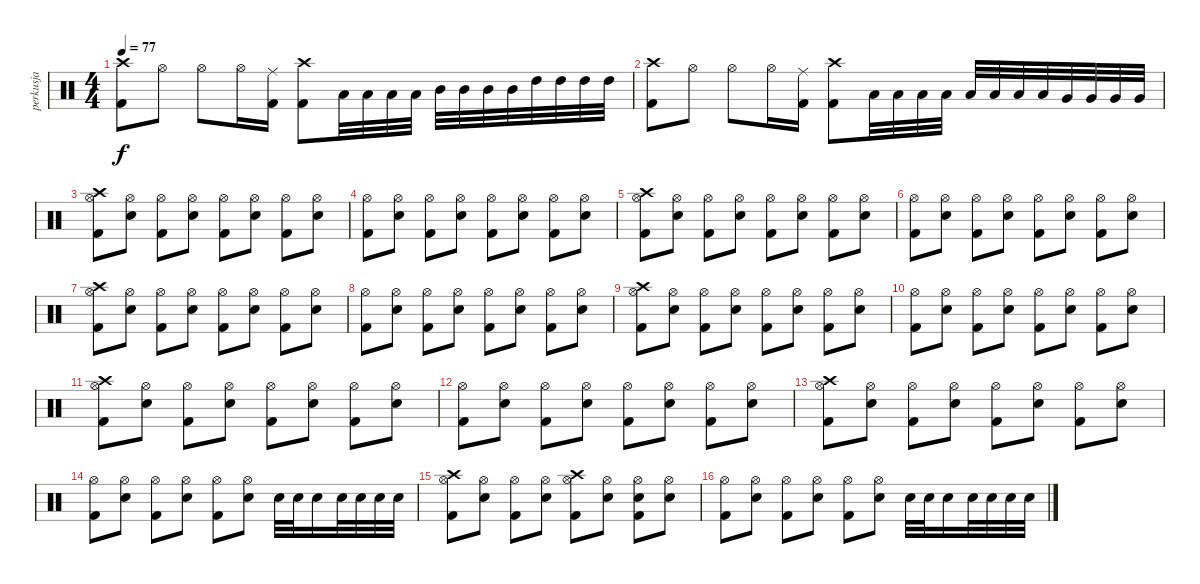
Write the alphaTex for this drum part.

\track ("perkusja" "perkusja") {instrument percussion}
\staff {score}
\articulation defaults
\ts (4 4)
\tempo 77
\clef neutral
\ks c
("Crash high (hit)" "Kick (hit) 2").8{dy f} "Hi-Hat (open)".8 "Hi-Hat (open)".8 "Hi-Hat (open)".16 ("Ride (middle)" "Kick (hit) 2").16 ("Crash high (hit)" "Kick (hit) 2").8 "Low Tom (hit)".32 "Low Tom (hit)".32 "Low Tom (hit)".32 "Low Tom (hit)".32 "Mid Tom (hit)".32 "Mid Tom (hit)".32 "Mid Tom (hit)".32 "Mid Tom (hit)".32 "High Tom (hit)".32 "High Tom (hit)".32 "High Tom (hit)".32 "High Tom (hit)".32 |
("Crash high (hit)" "Kick (hit) 2").8 "Hi-Hat (open)".8 "Hi-Hat (open)".8 "Hi-Hat (open)".16 ("Ride (middle)" "Kick (hit) 2").16 ("Crash high (hit)" "Kick (hit) 2").8 "Low Floor Tom (hit)".32 "Low Floor Tom (hit)".32 "Low Floor Tom (hit)".32 "Low Floor Tom (hit)".32 "Low Floor Tom (hit)".32 "Low Floor Tom (hit)".32 "Low Floor Tom (hit)".32 "Low Floor Tom (hit)".32 "Very Low Tom (hit)".32 "Very Low Tom (hit)".32 "Very Low Tom (hit)".32 "Very Low Tom (hit)".32 |
("Hi-Hat (open)" "Crash high (hit)" "Kick (hit) 2").8 ("Hi-Hat (open)" "Snare (hit) 2").8 ("Hi-Hat (open)" "Kick (hit) 2").8 ("Hi-Hat (open)" "Snare (hit) 2").8 ("Hi-Hat (open)" "Kick (hit) 2").8 ("Hi-Hat (open)" "Snare (hit) 2").8 ("Hi-Hat (open)" "Kick (hit) 2").8 ("Hi-Hat (open)" "Snare (hit) 2").8 |
("Hi-Hat (open)" "Kick (hit) 2").8 ("Hi-Hat (open)" "Snare (hit) 2").8 ("Hi-Hat (open)" "Kick (hit) 2").8 ("Hi-Hat (open)" "Snare (hit) 2").8 ("Hi-Hat (open)" "Kick (hit) 2").8 ("Hi-Hat (open)" "Snare (hit) 2").8 ("Hi-Hat (open)" "Kick (hit) 2").8 ("Hi-Hat (open)" "Snare (hit) 2").8 |
("Hi-Hat (open)" "Crash high (hit)" "Kick (hit) 2").8 ("Hi-Hat (open)" "Snare (hit) 2").8 ("Hi-Hat (open)" "Kick (hit) 2").8 ("Hi-Hat (open)" "Snare (hit) 2").8 ("Hi-Hat (open)" "Kick (hit) 2").8 ("Hi-Hat (open)" "Snare (hit) 2").8 ("Hi-Hat (open)" "Kick (hit) 2").8 ("Hi-Hat (open)" "Snare (hit) 2").8 |
("Hi-Hat (open)" "Kick (hit) 2").8 ("Hi-Hat (open)" "Snare (hit) 2").8 ("Hi-Hat (open)" "Kick (hit) 2").8 ("Hi-Hat (open)" "Snare (hit) 2").8 ("Hi-Hat (open)" "Kick (hit) 2").8 ("Hi-Hat (open)" "Snare (hit) 2").8 ("Hi-Hat (open)" "Kick (hit) 2").8 ("Hi-Hat (open)" "Snare (hit) 2").8 |
("Hi-Hat (open)" "Crash high (hit)" "Kick (hit) 2").8 ("Hi-Hat (open)" "Snare (hit) 2").8 ("Hi-Hat (open)" "Kick (hit) 2").8 ("Hi-Hat (open)" "Snare (hit) 2").8 ("Hi-Hat (open)" "Kick (hit) 2").8 ("Hi-Hat (open)" "Snare (hit) 2").8 ("Hi-Hat (open)" "Kick (hit) 2").8 ("Hi-Hat (open)" "Snare (hit) 2").8 |
("Hi-Hat (open)" "Kick (hit) 2").8 ("Hi-Hat (open)" "Snare (hit) 2").8 ("Hi-Hat (open)" "Kick (hit) 2").8 ("Hi-Hat (open)" "Snare (hit) 2").8 ("Hi-Hat (open)" "Kick (hit) 2").8 ("Hi-Hat (open)" "Snare (hit) 2").8 ("Hi-Hat (open)" "Kick (hit) 2").8 ("Hi-Hat (open)" "Snare (hit) 2").8 |
("Hi-Hat (open)" "Crash high (hit)" "Kick (hit) 2").8 ("Hi-Hat (open)" "Snare (hit) 2").8 ("Hi-Hat (open)" "Kick (hit) 2").8 ("Hi-Hat (open)" "Snare (hit) 2").8 ("Hi-Hat (open)" "Kick (hit) 2").8 ("Hi-Hat (open)" "Snare (hit) 2").8 ("Hi-Hat (open)" "Kick (hit) 2").8 ("Hi-Hat (open)" "Snare (hit) 2").8 |
("Hi-Hat (open)" "Kick (hit) 2").8 ("Hi-Hat (open)" "Snare (hit) 2").8 ("Hi-Hat (open)" "Kick (hit) 2").8 ("Hi-Hat (open)" "Snare (hit) 2").8 ("Hi-Hat (open)" "Kick (hit) 2").8 ("Hi-Hat (open)" "Snare (hit) 2").8 ("Hi-Hat (open)" "Kick (hit) 2").8 ("Hi-Hat (open)" "Snare (hit) 2").8 |
("Hi-Hat (open)" "Crash high (hit)" "Kick (hit) 2").8 ("Hi-Hat (open)" "Snare (hit) 2").8 ("Hi-Hat (open)" "Kick (hit) 2").8 ("Hi-Hat (open)" "Snare (hit) 2").8 ("Hi-Hat (open)" "Kick (hit) 2").8 ("Hi-Hat (open)" "Snare (hit) 2").8 ("Hi-Hat (open)" "Kick (hit) 2").8 ("Hi-Hat (open)" "Snare (hit) 2").8 |
("Hi-Hat (open)" "Kick (hit) 2").8 ("Hi-Hat (open)" "Snare (hit) 2").8 ("Hi-Hat (open)" "Kick (hit) 2").8 ("Hi-Hat (open)" "Snare (hit) 2").8 ("Hi-Hat (open)" "Kick (hit) 2").8 ("Hi-Hat (open)" "Snare (hit) 2").8 ("Hi-Hat (open)" "Kick (hit) 2").8 ("Hi-Hat (open)" "Snare (hit) 2").8 |
("Hi-Hat (open)" "Crash high (hit)" "Kick (hit) 2").8 ("Hi-Hat (open)" "Snare (hit) 2").8 ("Hi-Hat (open)" "Kick (hit) 2").8 ("Hi-Hat (open)" "Snare (hit) 2").8 ("Hi-Hat (open)" "Kick (hit) 2").8 ("Hi-Hat (open)" "Snare (hit) 2").8 ("Hi-Hat (open)" "Kick (hit) 2").8 ("Hi-Hat (open)" "Snare (hit) 2").8 |
("Hi-Hat (open)" "Kick (hit) 2").8 ("Hi-Hat (open)" "Snare (hit) 2").8 ("Hi-Hat (open)" "Kick (hit) 2").8 ("Hi-Hat (open)" "Snare (hit) 2").8 ("Hi-Hat (open)" "Kick (hit) 2").8 ("Hi-Hat (open)" "Snare (hit) 2").8 "Snare (hit) 2".32 "Snare (hit) 2".32 "Snare (hit) 2".16 "Snare (hit) 2".32 "Snare (hit) 2".32 "Snare (hit) 2".32 "Snare (hit) 2".32 |
("Hi-Hat (open)" "Crash high (hit)" "Kick (hit) 2").8 ("Hi-Hat (open)" "Snare (hit) 2").8 ("Hi-Hat (open)" "Kick (hit) 2").8 ("Hi-Hat (open)" "Snare (hit) 2").8 ("Hi-Hat (open)" "Crash high (hit)" "Kick (hit) 2").8 ("Hi-Hat (open)" "Snare (hit) 2").8 ("Hi-Hat (open)" "Snare (hit) 2" "Kick (hit) 2").8 ("Hi-Hat (open)" "Snare (hit) 2").8 |
("Hi-Hat (open)" "Kick (hit) 2").8 ("Hi-Hat (open)" "Snare (hit) 2").8 ("Hi-Hat (open)" "Kick (hit) 2").8 ("Hi-Hat (open)" "Snare (hit) 2").8 ("Hi-Hat (open)" "Kick (hit) 2").8 ("Hi-Hat (open)" "Snare (hit) 2").8 "Snare (hit) 2".32 "Snare (hit) 2".32 "Snare (hit) 2".16 "Snare (hit) 2".32 "Snare (hit) 2".32 "Snare (hit) 2".32 "Snare (hit) 2".32
